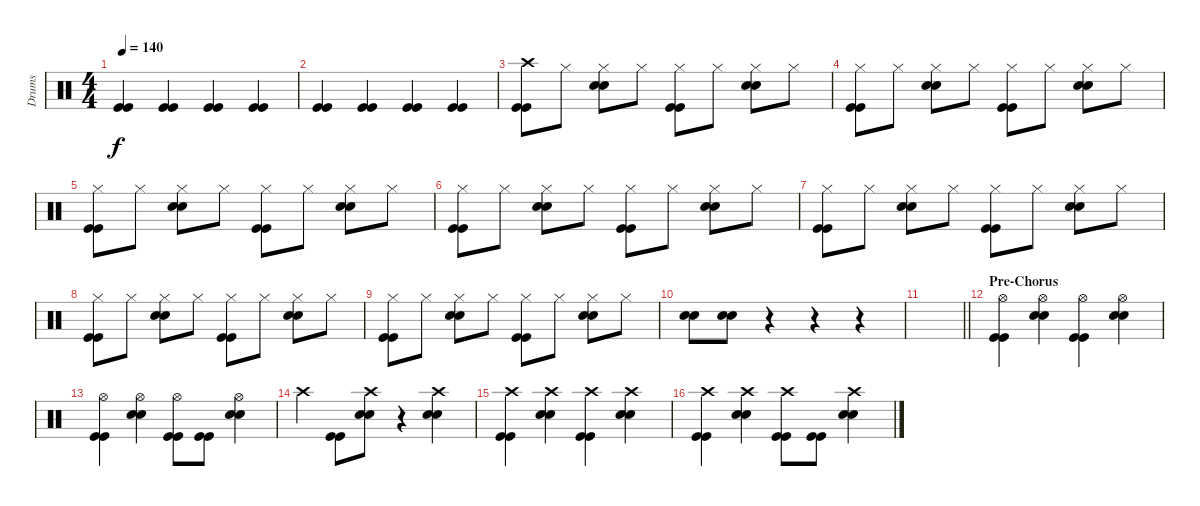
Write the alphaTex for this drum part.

\track ("Drums" "Drums") {instrument percussion}
\staff {score}
\articulation defaults
\ts (4 4)
\tempo 140
\clef neutral
\ks c
("Kick (hit)" "Kick (hit)").4{dy f} ("Kick (hit)" "Kick (hit)").4 ("Kick (hit)" "Kick (hit)").4 ("Kick (hit)" "Kick (hit)").4 |
("Kick (hit)" "Kick (hit)").4 ("Kick (hit)" "Kick (hit)").4 ("Kick (hit)" "Kick (hit)").4 ("Kick (hit)" "Kick (hit)").4 |
("Crash high (hit)" "Kick (hit)" "Kick (hit)").8 "Hi-Hat (closed)".8 ("Hi-Hat (closed)" "Snare (hit) 2" "Snare (hit) 2").8 "Hi-Hat (closed)".8 ("Hi-Hat (closed)" "Kick (hit)" "Kick (hit)").8 "Hi-Hat (closed)".8 ("Hi-Hat (closed)" "Snare (hit) 2" "Snare (hit) 2").8 "Hi-Hat (closed)".8 |
("Hi-Hat (closed)" "Kick (hit)" "Kick (hit)").8 "Hi-Hat (closed)".8 ("Hi-Hat (closed)" "Snare (hit) 2" "Snare (hit) 2").8 "Hi-Hat (closed)".8 ("Hi-Hat (closed)" "Kick (hit)" "Kick (hit)").8 "Hi-Hat (closed)".8 ("Hi-Hat (closed)" "Snare (hit) 2" "Snare (hit) 2").8 "Hi-Hat (closed)".8 |
("Hi-Hat (closed)" "Kick (hit)" "Kick (hit)").8 "Hi-Hat (closed)".8 ("Hi-Hat (closed)" "Snare (hit) 2" "Snare (hit) 2").8 "Hi-Hat (closed)".8 ("Hi-Hat (closed)" "Kick (hit)" "Kick (hit)").8 "Hi-Hat (closed)".8 ("Hi-Hat (closed)" "Snare (hit) 2" "Snare (hit) 2").8 "Hi-Hat (closed)".8 |
("Hi-Hat (closed)" "Kick (hit)" "Kick (hit)").8 "Hi-Hat (closed)".8 ("Hi-Hat (closed)" "Snare (hit) 2" "Snare (hit) 2").8 "Hi-Hat (closed)".8 ("Hi-Hat (closed)" "Kick (hit)" "Kick (hit)").8 "Hi-Hat (closed)".8 ("Hi-Hat (closed)" "Snare (hit) 2" "Snare (hit) 2").8 "Hi-Hat (closed)".8 |
("Hi-Hat (closed)" "Kick (hit)" "Kick (hit)").8 "Hi-Hat (closed)".8 ("Hi-Hat (closed)" "Snare (hit) 2" "Snare (hit) 2").8 "Hi-Hat (closed)".8 ("Hi-Hat (closed)" "Kick (hit)" "Kick (hit)").8 "Hi-Hat (closed)".8 ("Hi-Hat (closed)" "Snare (hit) 2" "Snare (hit) 2").8 "Hi-Hat (closed)".8 |
("Hi-Hat (closed)" "Kick (hit)" "Kick (hit)").8 "Hi-Hat (closed)".8 ("Hi-Hat (closed)" "Snare (hit) 2" "Snare (hit) 2").8 "Hi-Hat (closed)".8 ("Hi-Hat (closed)" "Kick (hit)" "Kick (hit)").8 "Hi-Hat (closed)".8 ("Hi-Hat (closed)" "Snare (hit) 2" "Snare (hit) 2").8 "Hi-Hat (closed)".8 |
("Hi-Hat (closed)" "Kick (hit)" "Kick (hit)").8 "Hi-Hat (closed)".8 ("Hi-Hat (closed)" "Snare (hit) 2" "Snare (hit) 2").8 "Hi-Hat (closed)".8 ("Hi-Hat (closed)" "Kick (hit)" "Kick (hit)").8 "Hi-Hat (closed)".8 ("Hi-Hat (closed)" "Snare (hit) 2" "Snare (hit) 2").8 "Hi-Hat (closed)".8 |
("Snare (hit) 2" "Snare (hit) 2").8 ("Snare (hit) 2" "Snare (hit) 2").8 r.4 r.4 r.4 |
\barLineRight lightlight
|
\section ("" "Pre-Chorus")
("Hi-Hat (open)" "Kick (hit)" "Kick (hit)").4 ("Hi-Hat (open)" "Snare (hit) 2" "Snare (hit) 2").4 ("Hi-Hat (open)" "Kick (hit)" "Kick (hit)").4 ("Hi-Hat (open)" "Snare (hit) 2" "Snare (hit) 2").4 |
("Hi-Hat (open)" "Kick (hit)" "Kick (hit)").4 ("Hi-Hat (open)" "Snare (hit) 2" "Snare (hit) 2").4 ("Hi-Hat (open)" "Kick (hit)" "Kick (hit)").8 ("Kick (hit)" "Kick (hit)").8 ("Hi-Hat (open)" "Snare (hit) 2" "Snare (hit) 2").4 |
"Crash high (hit)".4 ("Kick (hit)" "Kick (hit)").8 ("Crash high (hit)" "Snare (hit) 2" "Snare (hit) 2").8 r.4 ("Crash high (hit)" "Snare (hit) 2" "Snare (hit) 2").4 |
("Crash high (hit)" "Kick (hit)" "Kick (hit)").4 ("Crash high (hit)" "Snare (hit) 2" "Snare (hit) 2").4 ("Crash high (hit)" "Kick (hit)" "Kick (hit)").4 ("Crash high (hit)" "Snare (hit) 2" "Snare (hit) 2").4 |
("Crash high (hit)" "Kick (hit)" "Kick (hit)").4 ("Crash high (hit)" "Snare (hit) 2" "Snare (hit) 2").4 ("Crash high (hit)" "Kick (hit)" "Kick (hit)").8 ("Kick (hit)" "Kick (hit)").8 ("Crash high (hit)" "Snare (hit) 2" "Snare (hit) 2").4
